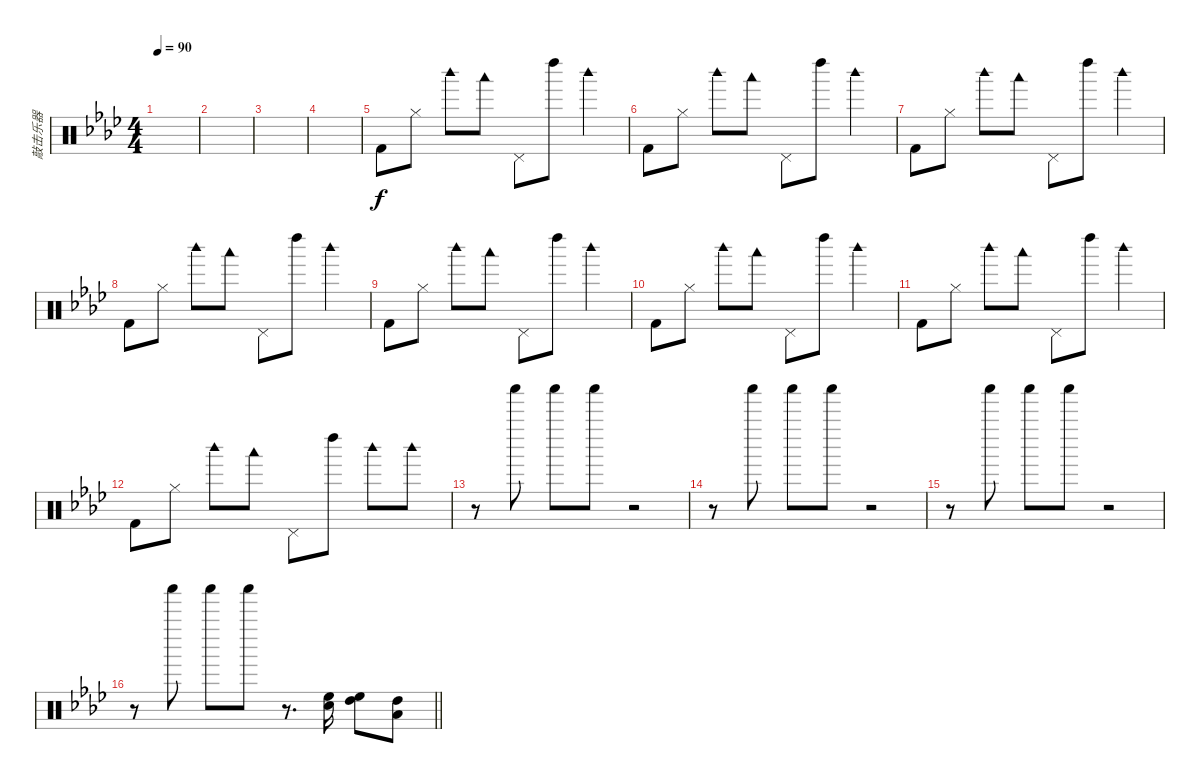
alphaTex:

\track ("敲击乐器" "敲击乐器") {instrument percussion}
\staff {score}
\articulation defaults
\ts (4 4)
\tempo 90
\clef neutral
\ks ab
|
|
|
|
"Kick (hit) 2".8 "Hi-Hat (closed)".8 "Woodblock high (hit)".8 "Woodblock low (hit)".8 "Pedal Hi-Hat (hit)".8 "Left Maraca (hit)".8 "Woodblock high (hit)".4 |
"Kick (hit) 2".8 "Hi-Hat (closed)".8 "Woodblock high (hit)".8 "Woodblock low (hit)".8 "Pedal Hi-Hat (hit)".8 "Left Maraca (hit)".8 "Woodblock high (hit)".4 |
"Kick (hit) 2".8 "Hi-Hat (closed)".8 "Woodblock high (hit)".8 "Woodblock low (hit)".8 "Pedal Hi-Hat (hit)".8 "Left Maraca (hit)".8 "Woodblock high (hit)".4 |
"Kick (hit) 2".8 "Hi-Hat (closed)".8 "Woodblock high (hit)".8 "Woodblock low (hit)".8 "Pedal Hi-Hat (hit)".8 "Left Maraca (hit)".8 "Woodblock high (hit)".4 |
"Kick (hit) 2".8 "Hi-Hat (closed)".8 "Woodblock high (hit)".8 "Woodblock low (hit)".8 "Pedal Hi-Hat (hit)".8 "Left Maraca (hit)".8 "Woodblock high (hit)".4 |
"Kick (hit) 2".8 "Hi-Hat (closed)".8 "Woodblock high (hit)".8 "Woodblock low (hit)".8 "Pedal Hi-Hat (hit)".8 "Left Maraca (hit)".8 "Woodblock high (hit)".4 |
"Kick (hit) 2".8 "Hi-Hat (closed)".8 "Woodblock high (hit)".8 "Woodblock low (hit)".8 "Pedal Hi-Hat (hit)".8 "Left Maraca (hit)".8 "Woodblock high (hit)".4 |
"Kick (hit) 2".8 "Hi-Hat (closed)".8 "Woodblock high (hit)".8 "Woodblock low (hit)".8 "Pedal Hi-Hat (hit)".8 "Left Maraca (hit)".8 "Woodblock high (hit)".8 "Woodblock high (hit)".8 |
r.8 "Shaker (hit)".8 "Shaker (hit)".8 "Shaker (hit)".8 r.2 |
r.8 "Shaker (hit)".8 "Shaker (hit)".8 "Shaker (hit)".8 r.2 |
r.8 "Shaker (hit)".8 "Shaker (hit)".8 "Shaker (hit)".8 r.2 |
\barLineRight lightlight
r.8 "Shaker (hit)".8 "Shaker (hit)".8 "Shaker (hit)".8 r.8{d} ("High Floor Tom (hit)" "Electric Snare (hit)").16 ("High Floor Tom (hit)" "High Tom (hit)").8 ("Low Tom (hit)" "High Tom (hit)").8
